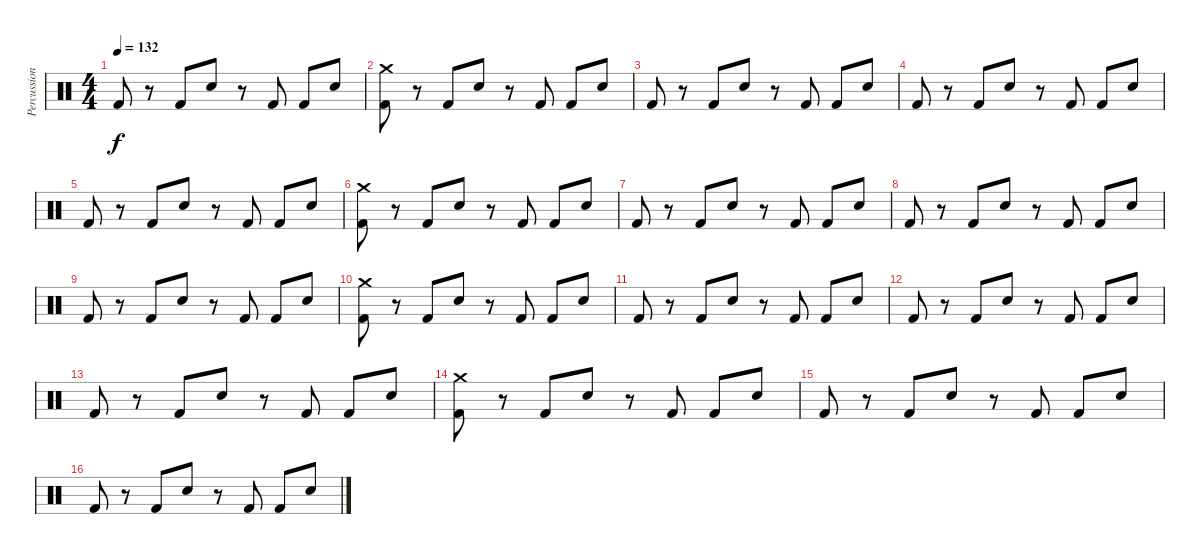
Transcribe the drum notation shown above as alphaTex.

\track ("Percussion" "Percussion") {instrument percussion}
\staff {score}
\articulation defaults
\ts (4 4)
\tempo 132
\clef neutral
\ks c "Kick (hit) 2".8{dy f}
r.8 "Kick (hit) 2".8 "Snare (hit) 2".8 r.8 "Kick (hit) 2".8 "Kick (hit) 2".8 "Snare (hit) 2".8 |
("Crash medium (hit)" "Kick (hit) 2").8 r.8 "Kick (hit) 2".8 "Snare (hit) 2".8 r.8 "Kick (hit) 2".8 "Kick (hit) 2".8 "Snare (hit) 2".8 |
"Kick (hit) 2".8 r.8 "Kick (hit) 2".8 "Snare (hit) 2".8 r.8 "Kick (hit) 2".8 "Kick (hit) 2".8 "Snare (hit) 2".8 |
"Kick (hit) 2".8 r.8 "Kick (hit) 2".8 "Snare (hit) 2".8 r.8 "Kick (hit) 2".8 "Kick (hit) 2".8 "Snare (hit) 2".8 |
"Kick (hit) 2".8 r.8 "Kick (hit) 2".8 "Snare (hit) 2".8 r.8 "Kick (hit) 2".8 "Kick (hit) 2".8 "Snare (hit) 2".8 |
("Crash medium (hit)" "Kick (hit) 2").8 r.8 "Kick (hit) 2".8 "Snare (hit) 2".8 r.8 "Kick (hit) 2".8 "Kick (hit) 2".8 "Snare (hit) 2".8 |
"Kick (hit) 2".8 r.8 "Kick (hit) 2".8 "Snare (hit) 2".8 r.8 "Kick (hit) 2".8 "Kick (hit) 2".8 "Snare (hit) 2".8 |
"Kick (hit) 2".8 r.8 "Kick (hit) 2".8 "Snare (hit) 2".8 r.8 "Kick (hit) 2".8 "Kick (hit) 2".8 "Snare (hit) 2".8 |
"Kick (hit) 2".8 r.8 "Kick (hit) 2".8 "Snare (hit) 2".8 r.8 "Kick (hit) 2".8 "Kick (hit) 2".8 "Snare (hit) 2".8 |
("Crash medium (hit)" "Kick (hit) 2").8 r.8 "Kick (hit) 2".8 "Snare (hit) 2".8 r.8 "Kick (hit) 2".8 "Kick (hit) 2".8 "Snare (hit) 2".8 |
"Kick (hit) 2".8 r.8 "Kick (hit) 2".8 "Snare (hit) 2".8 r.8 "Kick (hit) 2".8 "Kick (hit) 2".8 "Snare (hit) 2".8 |
"Kick (hit) 2".8 r.8 "Kick (hit) 2".8 "Snare (hit) 2".8 r.8 "Kick (hit) 2".8 "Kick (hit) 2".8 "Snare (hit) 2".8 |
"Kick (hit) 2".8 r.8 "Kick (hit) 2".8 "Snare (hit) 2".8 r.8 "Kick (hit) 2".8 "Kick (hit) 2".8 "Snare (hit) 2".8 |
("Crash medium (hit)" "Kick (hit) 2").8 r.8 "Kick (hit) 2".8 "Snare (hit) 2".8 r.8 "Kick (hit) 2".8 "Kick (hit) 2".8 "Snare (hit) 2".8 |
"Kick (hit) 2".8 r.8 "Kick (hit) 2".8 "Snare (hit) 2".8 r.8 "Kick (hit) 2".8 "Kick (hit) 2".8 "Snare (hit) 2".8 |
"Kick (hit) 2".8 r.8 "Kick (hit) 2".8 "Snare (hit) 2".8 r.8 "Kick (hit) 2".8 "Kick (hit) 2".8 "Snare (hit) 2".8
